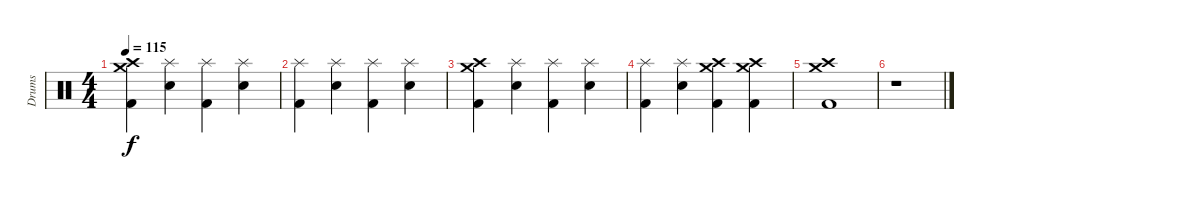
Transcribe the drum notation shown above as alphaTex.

\track ("Drums" "Drums") {instrument percussion}
\staff {score}
\articulation defaults
\ts (4 4)
\tempo 115
\clef neutral
\ks c
("Crash high (hit)" "Crash medium (hit)" "Kick (hit) 2").4{dy f} ("Splash (hit)" "Snare (hit) 2").4 ("Splash (hit)" "Kick (hit) 2").4 ("Splash (hit)" "Snare (hit) 2").4 |
("Splash (hit)" "Kick (hit) 2").4 ("Splash (hit)" "Snare (hit) 2").4 ("Splash (hit)" "Kick (hit) 2").4 ("Splash (hit)" "Snare (hit) 2").4 |
("Crash high (hit)" "Crash medium (hit)" "Kick (hit) 2").4 ("Splash (hit)" "Snare (hit) 2").4 ("Splash (hit)" "Kick (hit) 2").4 ("Splash (hit)" "Snare (hit) 2").4 |
("Splash (hit)" "Kick (hit) 2").4 ("Splash (hit)" "Snare (hit) 2").4 ("Crash high (hit)" "Crash medium (hit)" "Kick (hit) 2").4 ("Crash high (hit)" "Crash medium (hit)" "Kick (hit) 2").4 |
("Crash high (hit)" "Crash medium (hit)" "Kick (hit) 2").1 |
r.1
